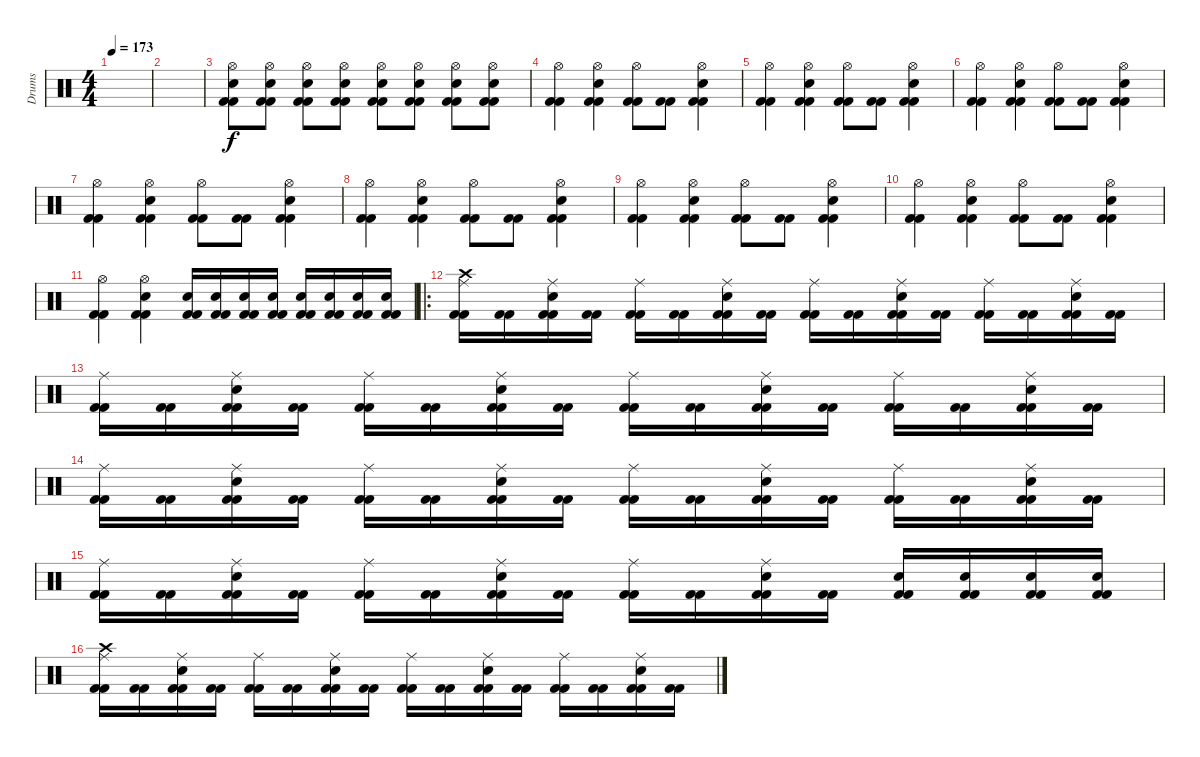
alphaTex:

\track ("Drums" "Drums") {instrument percussion}
\staff {score}
\articulation defaults
\ts (4 4)
\tempo 173
\clef neutral
\ks c
|
|
("Kick (hit) 2" "Kick (hit) 2" "Electric Snare (hit)" "Hi-Hat (open)").8 ("Kick (hit) 2" "Kick (hit) 2" "Electric Snare (hit)" "Hi-Hat (open)").8 ("Kick (hit) 2" "Kick (hit) 2" "Electric Snare (hit)" "Hi-Hat (open)").8 ("Kick (hit) 2" "Kick (hit) 2" "Electric Snare (hit)" "Hi-Hat (open)").8 ("Kick (hit) 2" "Kick (hit) 2" "Electric Snare (hit)" "Hi-Hat (open)").8 ("Kick (hit) 2" "Kick (hit) 2" "Electric Snare (hit)" "Hi-Hat (open)").8 ("Kick (hit) 2" "Kick (hit) 2" "Electric Snare (hit)" "Hi-Hat (open)").8 ("Kick (hit) 2" "Kick (hit) 2" "Electric Snare (hit)" "Hi-Hat (open)").8 |
("Kick (hit) 2" "Kick (hit) 2" "Hi-Hat (open)").4 ("Kick (hit) 2" "Kick (hit) 2" "Electric Snare (hit)" "Hi-Hat (open)").4 ("Kick (hit) 2" "Kick (hit) 2" "Hi-Hat (open)").8 ("Kick (hit) 2" "Kick (hit) 2").8 ("Kick (hit) 2" "Kick (hit) 2" "Electric Snare (hit)" "Hi-Hat (open)").4 |
("Kick (hit) 2" "Kick (hit) 2" "Hi-Hat (open)").4 ("Kick (hit) 2" "Kick (hit) 2" "Electric Snare (hit)" "Hi-Hat (open)").4 ("Kick (hit) 2" "Kick (hit) 2" "Hi-Hat (open)").8 ("Kick (hit) 2" "Kick (hit) 2").8 ("Kick (hit) 2" "Kick (hit) 2" "Electric Snare (hit)" "Hi-Hat (open)").4 |
("Kick (hit) 2" "Kick (hit) 2" "Hi-Hat (open)").4 ("Kick (hit) 2" "Kick (hit) 2" "Electric Snare (hit)" "Hi-Hat (open)").4 ("Kick (hit) 2" "Kick (hit) 2" "Hi-Hat (open)").8 ("Kick (hit) 2" "Kick (hit) 2").8 ("Kick (hit) 2" "Kick (hit) 2" "Electric Snare (hit)" "Hi-Hat (open)").4 |
("Kick (hit) 2" "Kick (hit) 2" "Hi-Hat (open)").4 ("Kick (hit) 2" "Kick (hit) 2" "Electric Snare (hit)" "Hi-Hat (open)").4 ("Kick (hit) 2" "Kick (hit) 2" "Hi-Hat (open)").8 ("Kick (hit) 2" "Kick (hit) 2").8 ("Kick (hit) 2" "Kick (hit) 2" "Electric Snare (hit)" "Hi-Hat (open)").4 |
("Kick (hit) 2" "Kick (hit) 2" "Hi-Hat (open)").4 ("Kick (hit) 2" "Kick (hit) 2" "Electric Snare (hit)" "Hi-Hat (open)").4 ("Kick (hit) 2" "Kick (hit) 2" "Hi-Hat (open)").8 ("Kick (hit) 2" "Kick (hit) 2").8 ("Kick (hit) 2" "Kick (hit) 2" "Electric Snare (hit)" "Hi-Hat (open)").4 |
("Kick (hit) 2" "Kick (hit) 2" "Hi-Hat (open)").4 ("Kick (hit) 2" "Kick (hit) 2" "Electric Snare (hit)" "Hi-Hat (open)").4 ("Kick (hit) 2" "Kick (hit) 2" "Hi-Hat (open)").8 ("Kick (hit) 2" "Kick (hit) 2").8 ("Kick (hit) 2" "Kick (hit) 2" "Electric Snare (hit)" "Hi-Hat (open)").4 |
("Kick (hit) 2" "Kick (hit) 2" "Hi-Hat (open)").4 ("Kick (hit) 2" "Kick (hit) 2" "Electric Snare (hit)" "Hi-Hat (open)").4 ("Kick (hit) 2" "Kick (hit) 2" "Hi-Hat (open)").8 ("Kick (hit) 2" "Kick (hit) 2").8 ("Kick (hit) 2" "Kick (hit) 2" "Electric Snare (hit)" "Hi-Hat (open)").4 |
("Kick (hit) 2" "Kick (hit) 2" "Hi-Hat (open)").4 ("Kick (hit) 2" "Kick (hit) 2" "Electric Snare (hit)" "Hi-Hat (open)").4 ("Kick (hit) 2" "Kick (hit) 2" "Electric Snare (hit)").16 ("Kick (hit) 2" "Kick (hit) 2" "Electric Snare (hit)").16 ("Kick (hit) 2" "Kick (hit) 2" "Electric Snare (hit)").16 ("Kick (hit) 2" "Kick (hit) 2" "Electric Snare (hit)").16 ("Kick (hit) 2" "Kick (hit) 2" "Electric Snare (hit)").16 ("Kick (hit) 2" "Kick (hit) 2" "Electric Snare (hit)").16 ("Kick (hit) 2" "Kick (hit) 2" "Electric Snare (hit)").16 ("Kick (hit) 2" "Kick (hit) 2" "Electric Snare (hit)").16 |
\ro
("Kick (hit) 2" "Kick (hit) 2" "Ride (middle)" "Crash high (hit)").16 ("Kick (hit) 2" "Kick (hit) 2").16 ("Kick (hit) 2" "Kick (hit) 2" "Ride (middle)" "Electric Snare (hit)").16 ("Kick (hit) 2" "Kick (hit) 2").16 ("Kick (hit) 2" "Kick (hit) 2" "Ride (middle)").16 ("Kick (hit) 2" "Kick (hit) 2").16 ("Kick (hit) 2" "Kick (hit) 2" "Ride (middle)" "Electric Snare (hit)").16 ("Kick (hit) 2" "Kick (hit) 2").16 ("Kick (hit) 2" "Kick (hit) 2" "Ride (middle)").16 ("Kick (hit) 2" "Kick (hit) 2").16 ("Kick (hit) 2" "Kick (hit) 2" "Ride (middle)" "Electric Snare (hit)").16 ("Kick (hit) 2" "Kick (hit) 2").16 ("Kick (hit) 2" "Kick (hit) 2" "Ride (middle)").16 ("Kick (hit) 2" "Kick (hit) 2").16 ("Kick (hit) 2" "Kick (hit) 2" "Ride (middle)" "Electric Snare (hit)").16 ("Kick (hit) 2" "Kick (hit) 2").16 |
("Kick (hit) 2" "Kick (hit) 2" "Ride (middle)").16 ("Kick (hit) 2" "Kick (hit) 2").16 ("Kick (hit) 2" "Kick (hit) 2" "Ride (middle)" "Electric Snare (hit)").16 ("Kick (hit) 2" "Kick (hit) 2").16 ("Kick (hit) 2" "Kick (hit) 2" "Ride (middle)").16 ("Kick (hit) 2" "Kick (hit) 2").16 ("Kick (hit) 2" "Kick (hit) 2" "Ride (middle)" "Electric Snare (hit)").16 ("Kick (hit) 2" "Kick (hit) 2").16 ("Kick (hit) 2" "Kick (hit) 2" "Ride (middle)").16 ("Kick (hit) 2" "Kick (hit) 2").16 ("Kick (hit) 2" "Kick (hit) 2" "Ride (middle)" "Electric Snare (hit)").16 ("Kick (hit) 2" "Kick (hit) 2").16 ("Kick (hit) 2" "Kick (hit) 2" "Ride (middle)").16 ("Kick (hit) 2" "Kick (hit) 2").16 ("Kick (hit) 2" "Kick (hit) 2" "Ride (middle)" "Electric Snare (hit)").16 ("Kick (hit) 2" "Kick (hit) 2").16 |
("Kick (hit) 2" "Kick (hit) 2" "Ride (middle)").16 ("Kick (hit) 2" "Kick (hit) 2").16 ("Kick (hit) 2" "Kick (hit) 2" "Ride (middle)" "Electric Snare (hit)").16 ("Kick (hit) 2" "Kick (hit) 2").16 ("Kick (hit) 2" "Kick (hit) 2" "Ride (middle)").16 ("Kick (hit) 2" "Kick (hit) 2").16 ("Kick (hit) 2" "Kick (hit) 2" "Ride (middle)" "Electric Snare (hit)").16 ("Kick (hit) 2" "Kick (hit) 2").16 ("Kick (hit) 2" "Kick (hit) 2" "Ride (middle)").16 ("Kick (hit) 2" "Kick (hit) 2").16 ("Kick (hit) 2" "Kick (hit) 2" "Ride (middle)" "Electric Snare (hit)").16 ("Kick (hit) 2" "Kick (hit) 2").16 ("Kick (hit) 2" "Kick (hit) 2" "Ride (middle)").16 ("Kick (hit) 2" "Kick (hit) 2").16 ("Kick (hit) 2" "Kick (hit) 2" "Ride (middle)" "Electric Snare (hit)").16 ("Kick (hit) 2" "Kick (hit) 2").16 |
("Kick (hit) 2" "Kick (hit) 2" "Ride (middle)").16 ("Kick (hit) 2" "Kick (hit) 2").16 ("Kick (hit) 2" "Kick (hit) 2" "Ride (middle)" "Electric Snare (hit)").16 ("Kick (hit) 2" "Kick (hit) 2").16 ("Kick (hit) 2" "Kick (hit) 2" "Ride (middle)").16 ("Kick (hit) 2" "Kick (hit) 2").16 ("Kick (hit) 2" "Kick (hit) 2" "Ride (middle)" "Electric Snare (hit)").16 ("Kick (hit) 2" "Kick (hit) 2").16 ("Kick (hit) 2" "Kick (hit) 2" "Ride (middle)").16 ("Kick (hit) 2" "Kick (hit) 2").16 ("Kick (hit) 2" "Kick (hit) 2" "Ride (middle)" "Electric Snare (hit)").16 ("Kick (hit) 2" "Kick (hit) 2").16 ("Kick (hit) 2" "Kick (hit) 2" "Electric Snare (hit)").16 ("Kick (hit) 2" "Kick (hit) 2" "Electric Snare (hit)").16 ("Kick (hit) 2" "Kick (hit) 2" "Electric Snare (hit)").16 ("Kick (hit) 2" "Kick (hit) 2" "Electric Snare (hit)").16 |
("Kick (hit) 2" "Kick (hit) 2" "Ride (middle)" "Crash high (hit)").16 ("Kick (hit) 2" "Kick (hit) 2").16 ("Kick (hit) 2" "Kick (hit) 2" "Ride (middle)" "Electric Snare (hit)").16 ("Kick (hit) 2" "Kick (hit) 2").16 ("Kick (hit) 2" "Kick (hit) 2" "Ride (middle)").16 ("Kick (hit) 2" "Kick (hit) 2").16 ("Kick (hit) 2" "Kick (hit) 2" "Ride (middle)" "Electric Snare (hit)").16 ("Kick (hit) 2" "Kick (hit) 2").16 ("Kick (hit) 2" "Kick (hit) 2" "Ride (middle)").16 ("Kick (hit) 2" "Kick (hit) 2").16 ("Kick (hit) 2" "Kick (hit) 2" "Ride (middle)" "Electric Snare (hit)").16 ("Kick (hit) 2" "Kick (hit) 2").16 ("Kick (hit) 2" "Kick (hit) 2" "Ride (middle)").16 ("Kick (hit) 2" "Kick (hit) 2").16 ("Kick (hit) 2" "Kick (hit) 2" "Ride (middle)" "Electric Snare (hit)").16 ("Kick (hit) 2" "Kick (hit) 2").16
